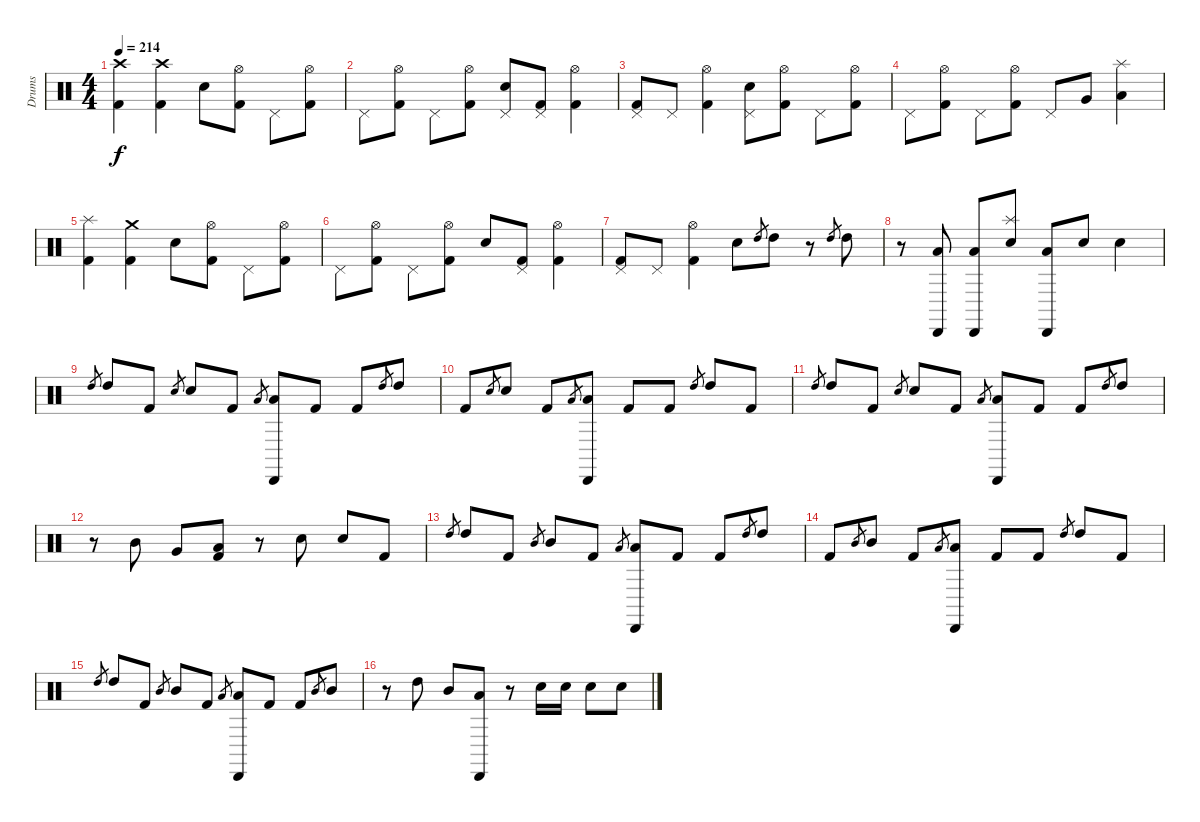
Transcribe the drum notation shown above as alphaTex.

\track ("Drums" "Drums") {instrument percussion}
\staff {score}
\articulation defaults
\ts (4 4)
\tempo 214
\clef neutral
\ks c
("Crash high (hit)" "Kick (hit) 2").4{dy f} ("Crash high (hit)" "Kick (hit) 2").4 "Electric Snare (hit)".8 ("Hi-Hat (open)" "Kick (hit) 2").8 "Pedal Hi-Hat (hit)".8 ("Hi-Hat (open)" "Kick (hit) 2").8 |
"Pedal Hi-Hat (hit)".8 ("Hi-Hat (open)" "Kick (hit) 2").8 "Pedal Hi-Hat (hit)".8 ("Hi-Hat (open)" "Kick (hit) 2").8 ("Pedal Hi-Hat (hit)" "Electric Snare (hit)").8 ("Pedal Hi-Hat (hit)" "Kick (hit) 2").8 ("Hi-Hat (open)" "Kick (hit) 2").4 |
("Pedal Hi-Hat (hit)" "Kick (hit) 2").8 "Pedal Hi-Hat (hit)".8 ("Hi-Hat (open)" "Kick (hit) 2").4 ("Pedal Hi-Hat (hit)" "Electric Snare (hit)").8 ("Hi-Hat (open)" "Kick (hit) 2").8 "Pedal Hi-Hat (hit)".8 ("Hi-Hat (open)" "Kick (hit) 2").8 |
"Pedal Hi-Hat (hit)".8 ("Hi-Hat (open)" "Kick (hit) 2").8 "Pedal Hi-Hat (hit)".8 ("Hi-Hat (open)" "Kick (hit) 2").8 "Pedal Hi-Hat (hit)".8 "Very Low Tom (hit)".8 ("Splash (hit)" "Low Tom (hit)").4 |
("Splash (hit)" "Kick (hit) 2").4 ("Crash medium (hit)" "Kick (hit) 2").4 "Electric Snare (hit)".8 ("Hi-Hat (open)" "Kick (hit) 2").8 "Pedal Hi-Hat (hit)".8 ("Hi-Hat (open)" "Kick (hit) 2").8 |
"Pedal Hi-Hat (hit)".8 ("Hi-Hat (open)" "Kick (hit) 2").8 "Pedal Hi-Hat (hit)".8 ("Hi-Hat (open)" "Kick (hit) 2").8 "Electric Snare (hit)".8 ("Pedal Hi-Hat (hit)" "Kick (hit) 2").8 ("Hi-Hat (open)" "Kick (hit) 2").4 |
("Pedal Hi-Hat (hit)" "Kick (hit) 2").8 "Pedal Hi-Hat (hit)".8 ("Hi-Hat (open)" "Kick (hit) 2").4 "Electric Snare (hit)".8 "High Tom (hit)".8{gr} "High Tom (hit)".8 r.8 "High Tom (hit)".8{gr} "High Tom (hit)".8 |
r.8 ("Low Tom (hit)" "Cabasa (hit)").8 ("Low Tom (hit)" "Cabasa (hit)").8 ("Splash (hit)" "Electric Snare (hit)").8 ("Low Tom (hit)" "Cabasa (hit)").8 "Electric Snare (hit)".8 "Electric Snare (hit)".4 |
"High Tom (hit)".8{gr} "High Tom (hit)".8 "Kick (hit) 2".8 "Electric Snare (hit)".8{gr} "Electric Snare (hit)".8 "Kick (hit) 2".8 "Low Tom (hit)".8{gr} ("Low Tom (hit)" "Cabasa (hit)").8 "Kick (hit) 2".8 "Kick (hit) 2".8 "High Tom (hit)".8{gr} "High Tom (hit)".8 |
"Kick (hit) 2".8 "Electric Snare (hit)".8{gr} "Electric Snare (hit)".8 "Kick (hit) 2".8 "Low Tom (hit)".8{gr} ("Low Tom (hit)" "Cabasa (hit)").8 "Kick (hit) 2".8 "Kick (hit) 2".8 "High Tom (hit)".8{gr} "High Tom (hit)".8 "Kick (hit) 2".8 |
"High Tom (hit)".8{gr} "High Tom (hit)".8 "Kick (hit) 2".8 "Electric Snare (hit)".8{gr} "Electric Snare (hit)".8 "Kick (hit) 2".8 "Low Tom (hit)".8{gr} ("Low Tom (hit)" "Cabasa (hit)").8 "Kick (hit) 2".8 "Kick (hit) 2".8 "High Tom (hit)".8{gr} "High Tom (hit)".8 |
r.8 "Mid Tom (hit)".8 "Very Low Tom (hit)".8 ("Low Tom (hit)" "Kick (hit) 2").8 r.8 "Electric Snare (hit)".8 "Electric Snare (hit)".8 "Kick (hit) 2".8 |
"High Tom (hit)".8{gr} "High Tom (hit)".8 "Kick (hit) 2".8 "Mid Tom (hit)".8{gr} "Mid Tom (hit)".8 "Kick (hit) 2".8 "Low Tom (hit)".8{gr} ("Low Tom (hit)" "Cabasa (hit)").8 "Kick (hit) 2".8 "Kick (hit) 2".8 "High Tom (hit)".8{gr} "High Tom (hit)".8 |
"Kick (hit) 2".8 "Mid Tom (hit)".8{gr} "Mid Tom (hit)".8 "Kick (hit) 2".8 "Low Tom (hit)".8{gr} ("Low Tom (hit)" "Cabasa (hit)").8 "Kick (hit) 2".8 "Kick (hit) 2".8 "High Tom (hit)".8{gr} "High Tom (hit)".8 "Kick (hit) 2".8 |
"High Tom (hit)".8{gr} "High Tom (hit)".8 "Kick (hit) 2".8 "Mid Tom (hit)".8{gr} "Mid Tom (hit)".8 "Kick (hit) 2".8 "Low Tom (hit)".8{gr} ("Low Tom (hit)" "Cabasa (hit)").8 "Kick (hit) 2".8 "Kick (hit) 2".8 "Mid Tom (hit)".8{gr} "Mid Tom (hit)".8 |
r.8 "High Tom (hit)".8 "Mid Tom (hit)".8 ("Low Tom (hit)" "Cabasa (hit)").8 r.8 "Electric Snare (hit)".16 "Electric Snare (hit)".16 "Electric Snare (hit)".8 "Electric Snare (hit)".8
